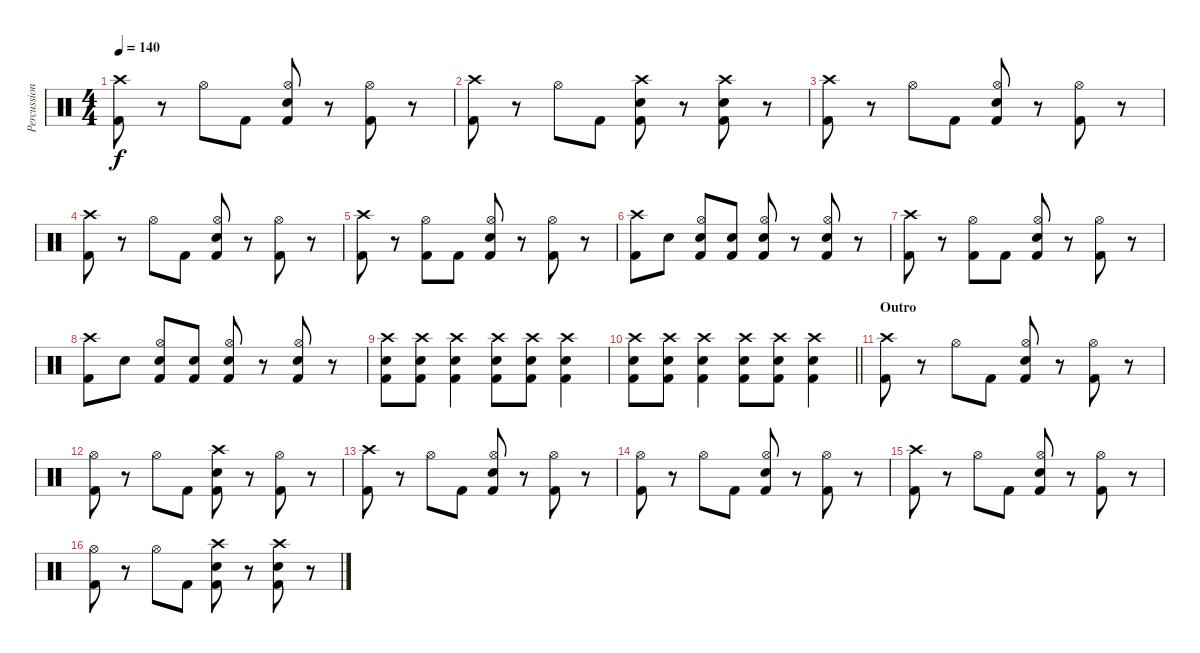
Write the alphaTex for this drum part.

\track ("Percussion" "Percussion") {instrument percussion}
\staff
\articulation defaults
\ts (4 4)
\tempo 140
\clef neutral
\ks c
("Crash high (hit)" "Kick (hit) 2").8{dy f} r.8 "Hi-Hat (open)".8 "Kick (hit) 2".8 ("Hi-Hat (open)" "Snare (hit) 2" "Kick (hit) 2").8 r.8 ("Hi-Hat (open)" "Kick (hit) 2").8 r.8 |
("Crash high (hit)" "Kick (hit) 2").8 r.8 "Hi-Hat (open)".8 "Kick (hit) 2".8 ("Crash high (hit)" "Snare (hit) 2" "Kick (hit) 2").8 r.8 ("Crash high (hit)" "Snare (hit) 2" "Kick (hit) 2").8 r.8 |
("Crash high (hit)" "Kick (hit) 2").8 r.8 "Hi-Hat (open)".8 "Kick (hit) 2".8 ("Hi-Hat (open)" "Snare (hit) 2" "Kick (hit) 2").8 r.8 ("Hi-Hat (open)" "Kick (hit) 2").8 r.8 |
("Crash high (hit)" "Kick (hit) 2").8 r.8 "Hi-Hat (open)".8 "Kick (hit) 2".8 ("Hi-Hat (open)" "Snare (hit) 2" "Kick (hit) 2").8 r.8 ("Hi-Hat (open)" "Kick (hit) 2").8 r.8 |
("Crash high (hit)" "Kick (hit) 2").8 r.8 ("Hi-Hat (open)" "Kick (hit) 2").8 "Kick (hit) 2".8 ("Hi-Hat (open)" "Snare (hit) 2" "Kick (hit) 2").8 r.8 ("Hi-Hat (open)" "Kick (hit) 2").8 r.8 |
("Crash high (hit)" "Kick (hit) 2").8 "Snare (hit) 2".8 ("Hi-Hat (open)" "Snare (hit) 2" "Kick (hit) 2").8 ("Snare (hit) 2" "Kick (hit) 2").8 ("Hi-Hat (open)" "Snare (hit) 2" "Kick (hit) 2").8 r.8 ("Hi-Hat (open)" "Snare (hit) 2" "Kick (hit) 2").8 r.8 |
("Crash high (hit)" "Kick (hit) 2").8 r.8 ("Hi-Hat (open)" "Kick (hit) 2").8 "Kick (hit) 2".8 ("Hi-Hat (open)" "Snare (hit) 2" "Kick (hit) 2").8 r.8 ("Hi-Hat (open)" "Kick (hit) 2").8 r.8 |
("Crash high (hit)" "Kick (hit) 2").8 "Snare (hit) 2".8 ("Hi-Hat (open)" "Snare (hit) 2" "Kick (hit) 2").8 ("Snare (hit) 2" "Kick (hit) 2").8 ("Hi-Hat (open)" "Snare (hit) 2" "Kick (hit) 2").8 r.8 ("Hi-Hat (open)" "Snare (hit) 2" "Kick (hit) 2").8 r.8 |
("Crash high (hit)" "Snare (hit) 2" "Kick (hit) 2").8 ("Crash high (hit)" "Snare (hit) 2" "Kick (hit) 2").8 ("Crash high (hit)" "Snare (hit) 2" "Kick (hit) 2").4 ("Crash high (hit)" "Snare (hit) 2" "Kick (hit) 2").8 ("Crash high (hit)" "Snare (hit) 2" "Kick (hit) 2").8 ("Crash high (hit)" "Snare (hit) 2" "Kick (hit) 2").4 |
\barLineRight lightlight
("Crash high (hit)" "Snare (hit) 2" "Kick (hit) 2").8 ("Crash high (hit)" "Snare (hit) 2" "Kick (hit) 2").8 ("Crash high (hit)" "Snare (hit) 2" "Kick (hit) 2").4 ("Crash high (hit)" "Snare (hit) 2" "Kick (hit) 2").8 ("Crash high (hit)" "Snare (hit) 2" "Kick (hit) 2").8 ("Crash high (hit)" "Snare (hit) 2" "Kick (hit) 2").4 |
\section ("" "Outro")
("Crash high (hit)" "Kick (hit) 2").8 r.8 "Hi-Hat (open)".8 "Kick (hit) 2".8 ("Hi-Hat (open)" "Snare (hit) 2" "Kick (hit) 2").8 r.8 ("Hi-Hat (open)" "Kick (hit) 2").8 r.8 |
("Hi-Hat (open)" "Kick (hit) 2").8 r.8 "Hi-Hat (open)".8 "Kick (hit) 2".8 ("Crash high (hit)" "Snare (hit) 2" "Kick (hit) 2").8 r.8 ("Hi-Hat (open)" "Kick (hit) 2").8 r.8 |
("Crash high (hit)" "Kick (hit) 2").8 r.8 "Hi-Hat (open)".8 "Kick (hit) 2".8 ("Hi-Hat (open)" "Snare (hit) 2" "Kick (hit) 2").8 r.8 ("Hi-Hat (open)" "Kick (hit) 2").8 r.8 |
("Hi-Hat (open)" "Kick (hit) 2").8 r.8 "Hi-Hat (open)".8 "Kick (hit) 2".8 ("Hi-Hat (open)" "Snare (hit) 2" "Kick (hit) 2").8 r.8 ("Hi-Hat (open)" "Kick (hit) 2").8 r.8 |
("Crash high (hit)" "Kick (hit) 2").8 r.8 "Hi-Hat (open)".8 "Kick (hit) 2".8 ("Hi-Hat (open)" "Snare (hit) 2" "Kick (hit) 2").8 r.8 ("Hi-Hat (open)" "Kick (hit) 2").8 r.8 |
("Hi-Hat (open)" "Kick (hit) 2").8 r.8 "Hi-Hat (open)".8 "Kick (hit) 2".8 ("Crash high (hit)" "Snare (hit) 2" "Kick (hit) 2").8 r.8 ("Crash high (hit)" "Snare (hit) 2" "Kick (hit) 2").8 r.8
